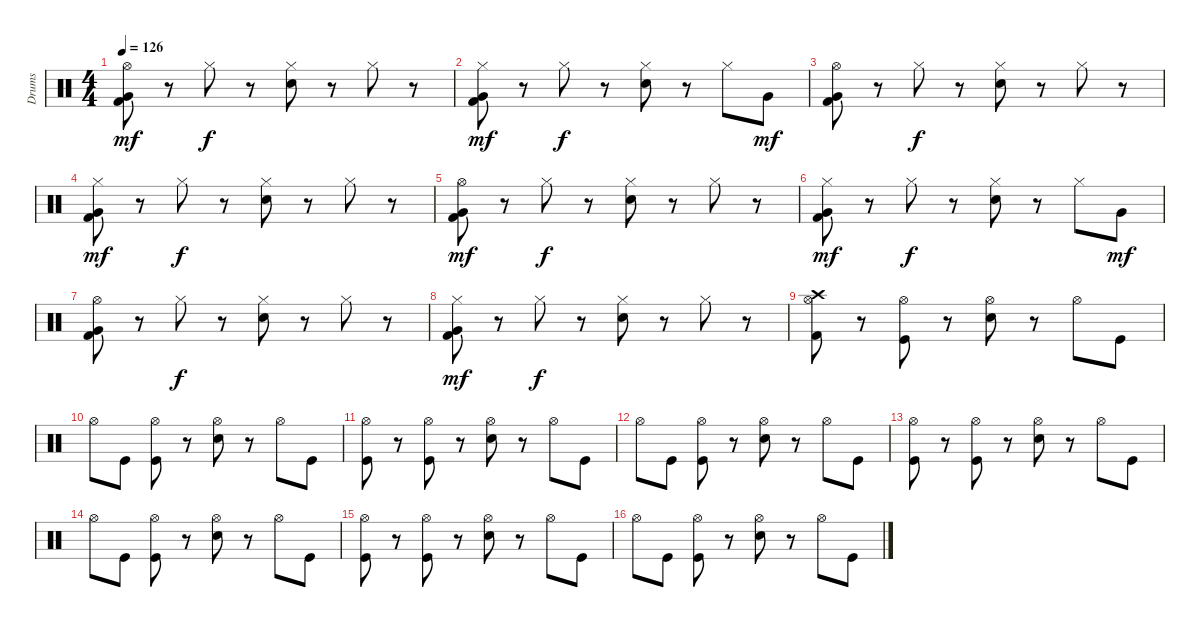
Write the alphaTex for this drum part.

\track ("Drums" "Drums") {instrument percussion}
\staff {score}
\articulation defaults
\ts (4 4)
\tempo 126
\clef neutral
\ks c
("Hi-Hat (open)" "Very Low Tom (hit)" "Kick (hit) 2").8{dy mf} r.8 "Hi-Hat (closed)".8{dy f} r.8 ("Hi-Hat (closed)" "Electric Snare (hit)").8 r.8 "Hi-Hat (closed)".8 r.8 |
("Hi-Hat (closed)" "Very Low Tom (hit)" "Kick (hit) 2").8{dy mf} r.8 "Hi-Hat (closed)".8{dy f} r.8 ("Hi-Hat (closed)" "Electric Snare (hit)").8 r.8 "Hi-Hat (closed)".8 "Very Low Tom (hit)".8{dy mf} |
("Hi-Hat (open)" "Very Low Tom (hit)" "Kick (hit) 2").8 r.8 "Hi-Hat (closed)".8{dy f} r.8 ("Hi-Hat (closed)" "Electric Snare (hit)").8 r.8 "Hi-Hat (closed)".8 r.8 |
("Hi-Hat (closed)" "Very Low Tom (hit)" "Kick (hit) 2").8{dy mf} r.8 "Hi-Hat (closed)".8{dy f} r.8 ("Hi-Hat (closed)" "Electric Snare (hit)").8 r.8 "Hi-Hat (closed)".8 r.8 |
("Hi-Hat (open)" "Very Low Tom (hit)" "Kick (hit) 2").8{dy mf} r.8 "Hi-Hat (closed)".8{dy f} r.8 ("Hi-Hat (closed)" "Electric Snare (hit)").8 r.8 "Hi-Hat (closed)".8 r.8 |
("Hi-Hat (closed)" "Very Low Tom (hit)" "Kick (hit) 2").8{dy mf} r.8 "Hi-Hat (closed)".8{dy f} r.8 ("Hi-Hat (closed)" "Electric Snare (hit)").8 r.8 "Hi-Hat (closed)".8 "Very Low Tom (hit)".8{dy mf} |
("Hi-Hat (open)" "Very Low Tom (hit)" "Kick (hit) 2").8 r.8 "Hi-Hat (closed)".8{dy f} r.8 ("Hi-Hat (closed)" "Electric Snare (hit)").8 r.8 "Hi-Hat (closed)".8 r.8 |
("Hi-Hat (closed)" "Very Low Tom (hit)" "Kick (hit) 2").8{dy mf} r.8 "Hi-Hat (closed)".8{dy f} r.8 ("Hi-Hat (closed)" "Electric Snare (hit)").8 r.8 "Hi-Hat (closed)".8 r.8 |
("Crash high (hit)" "Hi-Hat (open)" "Kick (hit) 2").8{volume 15} r.8 ("Hi-Hat (open)" "Kick (hit)").8 r.8 ("Hi-Hat (open)" "Electric Snare (hit)").8 r.8 "Hi-Hat (open)".8 "Kick (hit)".8 |
"Hi-Hat (open)".8 "Kick (hit)".8 ("Hi-Hat (open)" "Kick (hit)").8 r.8 ("Hi-Hat (open)" "Electric Snare (hit)").8 r.8 "Hi-Hat (open)".8 "Kick (hit)".8 |
("Hi-Hat (open)" "Kick (hit)").8 r.8 ("Hi-Hat (open)" "Kick (hit)").8 r.8 ("Hi-Hat (open)" "Electric Snare (hit)").8 r.8 "Hi-Hat (open)".8 "Kick (hit)".8 |
"Hi-Hat (open)".8 "Kick (hit)".8 ("Hi-Hat (open)" "Kick (hit)").8 r.8 ("Hi-Hat (open)" "Electric Snare (hit)").8 r.8 "Hi-Hat (open)".8 "Kick (hit)".8 |
("Hi-Hat (open)" "Kick (hit)").8 r.8 ("Hi-Hat (open)" "Kick (hit)").8 r.8 ("Hi-Hat (open)" "Electric Snare (hit)").8 r.8 "Hi-Hat (open)".8 "Kick (hit)".8 |
"Hi-Hat (open)".8 "Kick (hit)".8 ("Hi-Hat (open)" "Kick (hit)").8 r.8 ("Hi-Hat (open)" "Electric Snare (hit)").8 r.8 "Hi-Hat (open)".8 "Kick (hit)".8 |
("Hi-Hat (open)" "Kick (hit)").8 r.8 ("Hi-Hat (open)" "Kick (hit)").8 r.8 ("Hi-Hat (open)" "Electric Snare (hit)").8 r.8 "Hi-Hat (open)".8 "Kick (hit)".8 |
"Hi-Hat (open)".8 "Kick (hit)".8 ("Hi-Hat (open)" "Kick (hit)").8 r.8 ("Hi-Hat (open)" "Electric Snare (hit)").8 r.8 "Hi-Hat (open)".8 "Kick (hit)".8
